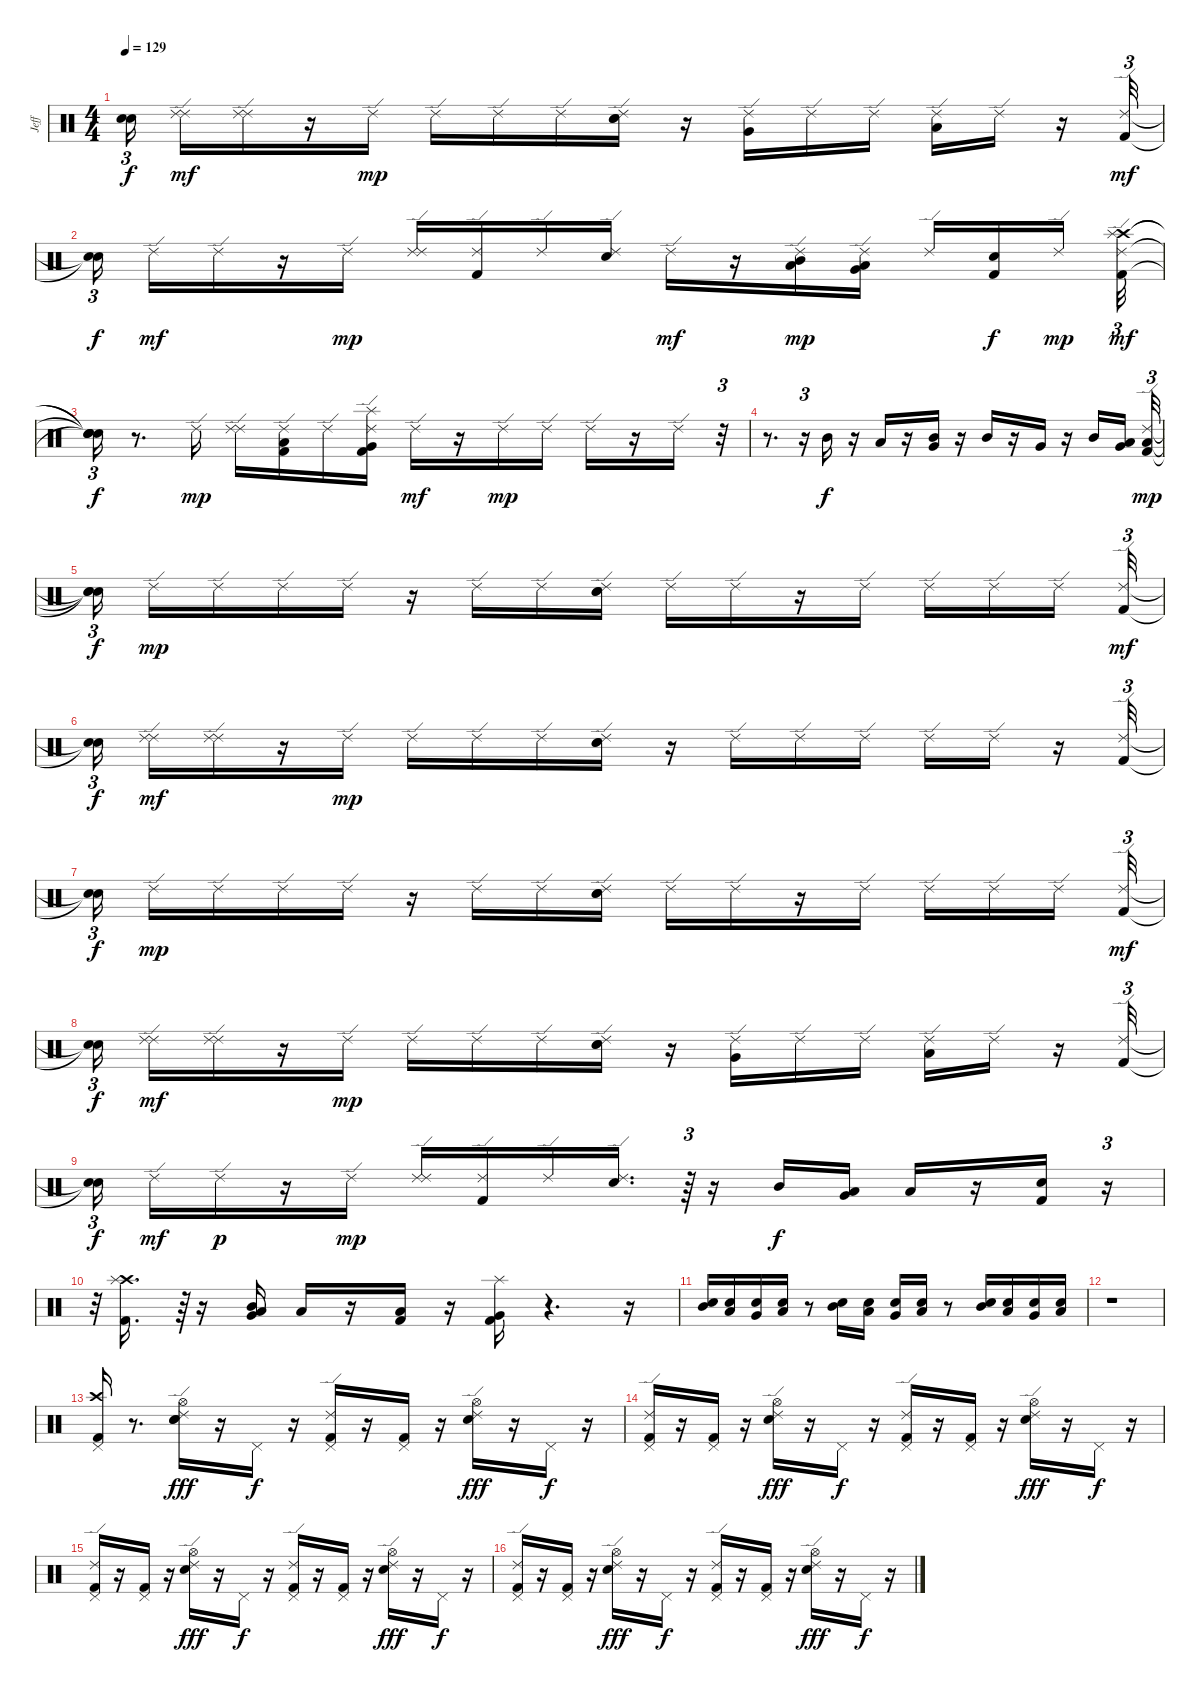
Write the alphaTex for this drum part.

\track ("Jeff" "Jeff") {instrument percussion}
\staff {score}
\articulation defaults
\ts (4 4)
\tempo 129
\clef neutral
\ks c
("Snare (hit)"{t} "Snare (hit)"{t}).16{tu (3 2) dy f beam splitsecondary} ("Ride (edge) 2" "Ride (edge) 2").16{dy mf} ("Ride (edge) 2" "Ride (edge) 2").16 r.16 "Ride (edge) 2".16{dy mp} "Ride (edge) 2".16 "Ride (edge) 2".16 "Ride (edge) 2".16 ("Snare (hit) 2" "Electric Snare (hit)" "Ride (edge) 2").16 r.16 ("Very Low Tom (hit)" "Ride (edge) 2").16 "Ride (edge) 2".16 "Ride (edge) 2".16 ("Ride (edge) 2" "Low Floor Tom (hit)").16 "Ride (edge) 2".16 r.16 ("Kick (hit) 2" "Ride (edge) 2").32{tu (3 2) dy mf} |
("Snare (hit)"{t} "Snare (hit)"{t}).16{tu (3 2) dy f beam splitsecondary} "Ride (edge) 2".16{dy mf} "Ride (edge) 2".16 r.16 "Ride (edge) 2".16{dy mp} ("Ride (edge) 2" "Ride (edge) 2").16 ("Kick (hit) 2" "Ride (edge) 2").16 "Ride (edge) 2".16 ("Electric Snare (hit)" "Ride (edge) 2").16 "Ride (edge) 2".16{dy mf} r.16 ("Mid Tom (hit)" "Low Tom (hit)" "Ride (edge) 2").16{dy mp} ("Very Low Tom (hit)" "Low Floor Tom (hit)" "Ride (edge) 2").16 "Ride (edge) 2".16 ("Kick (hit) 2" "Snare (hit) 2").16{dy f} "Ride (edge) 2".16{dy mp beam splitsecondary} ("Kick (hit) 2" "Crash high (hit)" "Splash (hit)" "Ride (edge) 2").32{tu (3 2) dy mf} |
("Snare (hit)"{t} "Snare (hit)"{t} "Snare (hit)"{t} "Snare (hit)"{t}).16{tu (3 2) dy f} r.8{d} "Ride (edge) 2".16{dy mp} ("Ride (edge) 2" "Ride (edge) 2").16 ("Kick (hit) 2" "Low Floor Tom (hit)" "Ride (edge) 2").16 "Ride (edge) 2".16 ("Kick (hit) 2" "Very Low Tom (hit)" "Splash (hit)" "Ride (edge) 2").16 "Ride (edge) 2".16{dy mf} r.16 "Ride (edge) 2".16{dy mp} "Ride (edge) 2".16 "Ride (edge) 2".16 r.16 "Ride (edge) 2".16 r.32{tu (3 2)} |
r.8{d} r.16{tu (3 2)} "Mid Tom (hit)".16{dy f} r.16 "Low Tom (hit)".16 r.16 ("Very Low Tom (hit)" "Mid Tom (hit)").16 r.16 "Mid Tom (hit)".16 r.16 "Very Low Tom (hit)".16 r.16 "Mid Tom (hit)".16 ("Low Tom (hit)" "Very Low Tom (hit)").16{beam splitsecondary} ("Low Floor Tom (hit)" "Kick (hit) 2" "Ride (edge) 2").32{tu (3 2) dy mp} |
("Snare (hit)"{t} "Snare (hit)"{t} "Snare (hit)"{t}).16{tu (3 2) dy f beam splitsecondary} "Ride (edge) 2".16{dy mp} "Ride (edge) 2".16 "Ride (edge) 2".16 "Ride (edge) 2".16 r.16 "Ride (edge) 2".16 "Ride (edge) 2".16 ("Snare (hit) 2" "Electric Snare (hit)" "Ride (edge) 2").16 "Ride (edge) 2".16 "Ride (edge) 2".16 r.16 "Ride (edge) 2".16 "Ride (edge) 2".16 "Ride (edge) 2".16 "Ride (edge) 2".16{beam splitsecondary} ("Kick (hit) 2" "Ride (edge) 2").32{tu (3 2) dy mf} |
("Snare (hit)"{t} "Snare (hit)"{t}).16{tu (3 2) dy f beam splitsecondary} ("Ride (edge) 2" "Ride (edge) 2").16{dy mf} ("Ride (edge) 2" "Ride (edge) 2").16 r.16 "Ride (edge) 2".16{dy mp} "Ride (edge) 2".16 "Ride (edge) 2".16 "Ride (edge) 2".16 ("Snare (hit) 2" "Electric Snare (hit)" "Ride (edge) 2").16 r.16 "Ride (edge) 2".16 "Ride (edge) 2".16 "Ride (edge) 2".16 "Ride (edge) 2".16 "Ride (edge) 2".16 r.16 ("Kick (hit) 2" "Ride (edge) 2").32{tu (3 2)} |
("Snare (hit)"{t} "Snare (hit)"{t}).16{tu (3 2) dy f beam splitsecondary} "Ride (edge) 2".16{dy mp} "Ride (edge) 2".16 "Ride (edge) 2".16 "Ride (edge) 2".16 r.16 "Ride (edge) 2".16 "Ride (edge) 2".16 ("Snare (hit) 2" "Electric Snare (hit)" "Ride (edge) 2").16 "Ride (edge) 2".16 "Ride (edge) 2".16 r.16 "Ride (edge) 2".16 "Ride (edge) 2".16 "Ride (edge) 2".16 "Ride (edge) 2".16{beam splitsecondary} ("Kick (hit) 2" "Ride (edge) 2").32{tu (3 2) dy mf} |
("Snare (hit)"{t} "Snare (hit)"{t}).16{tu (3 2) dy f beam splitsecondary} ("Ride (edge) 2" "Ride (edge) 2").16{dy mf} ("Ride (edge) 2" "Ride (edge) 2").16 r.16 "Ride (edge) 2".16{dy mp} "Ride (edge) 2".16 "Ride (edge) 2".16 "Ride (edge) 2".16 ("Snare (hit) 2" "Electric Snare (hit)" "Ride (edge) 2").16 r.16 ("Very Low Tom (hit)" "Ride (edge) 2").16 "Ride (edge) 2".16 "Ride (edge) 2".16 ("Ride (edge) 2" "Low Floor Tom (hit)").16 "Ride (edge) 2".16 r.16 ("Kick (hit) 2" "Ride (edge) 2").32{tu (3 2)} |
("Snare (hit)"{t} "Snare (hit)"{t}).16{tu (3 2) dy f beam splitsecondary} "Ride (edge) 2".16{dy mf} "Ride (edge) 2".16{dy p} r.16 "Ride (edge) 2".16{dy mp} ("Ride (edge) 2" "Ride (edge) 2").16 ("Kick (hit) 2" "Ride (edge) 2").16 "Ride (edge) 2".16 ("Electric Snare (hit)" "Ride (edge) 2").16{d} r.64{tu (3 2)} r.16 "Mid Tom (hit)".16{dy f} ("Low Tom (hit)" "Very Low Tom (hit)").16 "Low Floor Tom (hit)".16 r.16 ("Kick (hit) 2" "Snare (hit) 2").16 r.16{tu (3 2)} |
r.32{tu (3 2)} ("Kick (hit) 2" "Crash high (hit)" "Splash (hit)").16{d} r.64{tu (3 2)} r.16 ("Mid Tom (hit)" "Low Tom (hit)" "Very Low Tom (hit)").16 "Low Floor Tom (hit)".16 r.16 ("Kick (hit) 2" "Low Floor Tom (hit)").16 r.16 ("Kick (hit) 2" "Very Low Tom (hit)" "Splash (hit)").16 r.4{d} r.16 |
("Snare (hit) 2" "Mid Tom (hit)").16 ("Snare (hit) 2" "Low Tom (hit)").16 ("Snare (hit) 2" "Very Low Tom (hit)").16 ("Snare (hit) 2" "Low Floor Tom (hit)").16 r.8 ("Snare (hit) 2" "Mid Tom (hit)").16 ("Snare (hit) 2" "Low Tom (hit)").16 ("Snare (hit) 2" "Very Low Tom (hit)").16 ("Snare (hit) 2" "Low Floor Tom (hit)").16 r.8 ("Snare (hit) 2" "Mid Tom (hit)").16 ("Snare (hit) 2" "Low Tom (hit)").16 ("Snare (hit) 2" "Very Low Tom (hit)").16 ("Snare (hit) 2" "Low Floor Tom (hit)").16 |
r.1 |
("Kick (hit) 2" "Pedal Hi-Hat (hit)" "Crash high (hit)").16 r.8{d} ("Snare (hit) 2" "Electric Snare (hit)" "Hi-Hat (open)" "Ride (edge) 2").16{dy fff} r.16 "Pedal Hi-Hat (hit)".16{dy f} r.16 ("Kick (hit) 2" "Pedal Hi-Hat (hit)" "Ride (edge) 2").16 r.16 ("Kick (hit) 2" "Pedal Hi-Hat (hit)").16 r.16 ("Electric Snare (hit)" "Hi-Hat (open)" "Ride (edge) 2").16{dy fff} r.16 "Pedal Hi-Hat (hit)".16{dy f} r.16 |
("Kick (hit) 2" "Pedal Hi-Hat (hit)" "Ride (edge) 2").16 r.16 ("Kick (hit) 2" "Pedal Hi-Hat (hit)").16 r.16 ("Electric Snare (hit)" "Hi-Hat (open)" "Ride (edge) 2").16{dy fff} r.16 "Pedal Hi-Hat (hit)".16{dy f} r.16 ("Kick (hit) 2" "Pedal Hi-Hat (hit)" "Ride (edge) 2").16 r.16 ("Kick (hit) 2" "Pedal Hi-Hat (hit)").16 r.16 ("Electric Snare (hit)" "Hi-Hat (open)" "Ride (edge) 2").16{dy fff} r.16 "Pedal Hi-Hat (hit)".16{dy f} r.16 |
("Kick (hit) 2" "Pedal Hi-Hat (hit)" "Ride (edge) 2").16 r.16 ("Kick (hit) 2" "Pedal Hi-Hat (hit)").16 r.16 ("Electric Snare (hit)" "Hi-Hat (open)" "Ride (edge) 2").16{dy fff} r.16 "Pedal Hi-Hat (hit)".16{dy f} r.16 ("Kick (hit) 2" "Pedal Hi-Hat (hit)" "Ride (edge) 2").16 r.16 ("Kick (hit) 2" "Pedal Hi-Hat (hit)").16 r.16 ("Electric Snare (hit)" "Hi-Hat (open)" "Ride (edge) 2").16{dy fff} r.16 "Pedal Hi-Hat (hit)".16{dy f} r.16 |
("Kick (hit) 2" "Pedal Hi-Hat (hit)" "Ride (edge) 2").16 r.16 ("Kick (hit) 2" "Pedal Hi-Hat (hit)").16 r.16 ("Electric Snare (hit)" "Hi-Hat (open)" "Ride (edge) 2").16{dy fff} r.16 "Pedal Hi-Hat (hit)".16{dy f} r.16 ("Kick (hit) 2" "Pedal Hi-Hat (hit)" "Ride (edge) 2").16 r.16 ("Kick (hit) 2" "Pedal Hi-Hat (hit)").16 r.16 ("Electric Snare (hit)" "Hi-Hat (open)" "Ride (edge) 2").16{dy fff} r.16 "Pedal Hi-Hat (hit)".16{dy f} r.16
